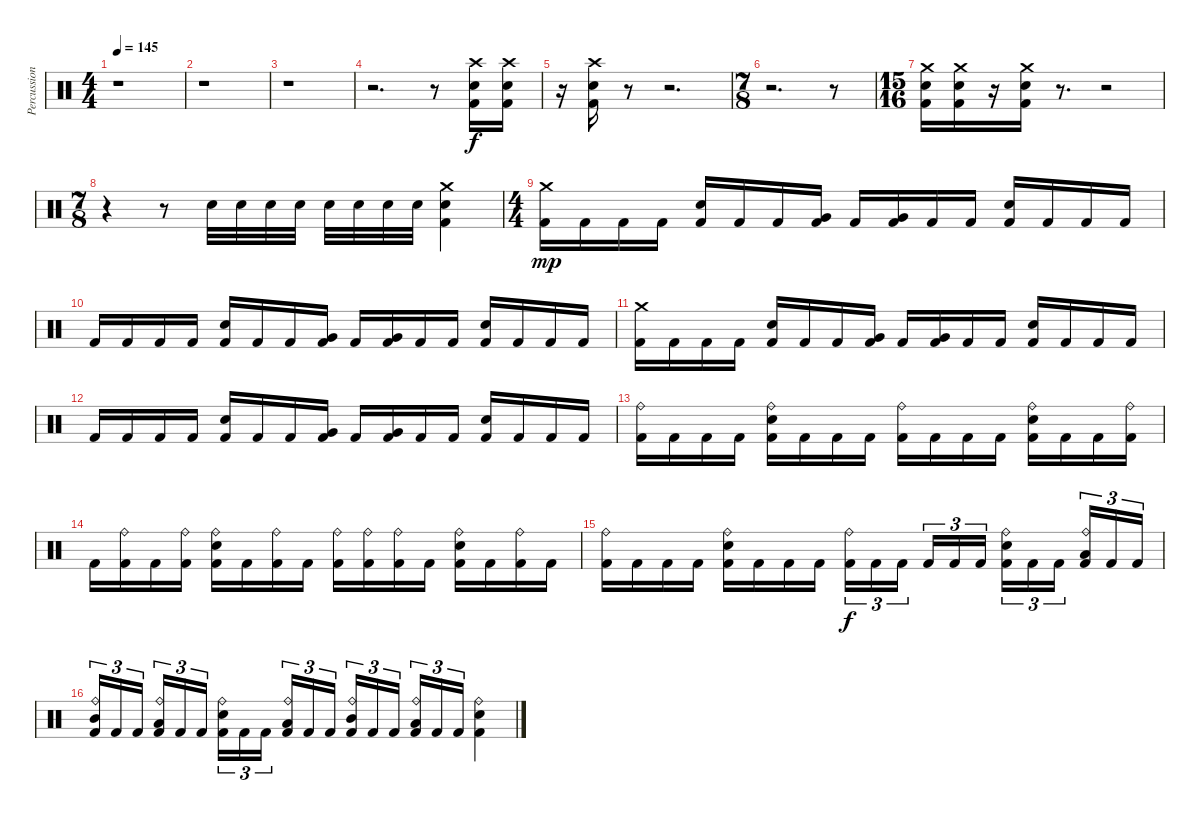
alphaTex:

\track ("Percussion" "Percussion") {instrument percussion}
\staff {score}
\articulation defaults
\ts (4 4)
\tempo 145
\clef neutral
\ks c
r.1{dy f} |
r.1 |
r.1 |
r.2{d} r.8 ("Crash high (hit)" "Electric Snare (hit)" "Kick (hit) 2").16 ("Crash high (hit)" "Electric Snare (hit)" "Kick (hit) 2").16 |
r.16 ("Crash high (hit)" "Electric Snare (hit)" "Kick (hit) 2").16 r.8 r.2{d} |
\ts (7 8)
r.2{d} r.8 |
\ts (15 16)
("Crash medium (hit)" "Electric Snare (hit)" "Kick (hit) 2").16 ("Crash medium (hit)" "Electric Snare (hit)" "Kick (hit) 2").16 r.16 ("Crash medium (hit)" "Electric Snare (hit)" "Kick (hit) 2").16 r.8{d} r.2 |
\ts (7 8)
r.4 r.8 "Electric Snare (hit)".32 "Electric Snare (hit)".32 "Electric Snare (hit)".32 "Electric Snare (hit)".32 "Electric Snare (hit)".32 "Electric Snare (hit)".32 "Electric Snare (hit)".32 "Electric Snare (hit)".32 ("Crash medium (hit)" "Electric Snare (hit)" "Kick (hit) 2").4 |
\ts (4 4)
("Crash medium (hit)" "Kick (hit) 2").16{dy mp} "Kick (hit) 2".16 "Kick (hit) 2".16 "Kick (hit) 2".16 ("Electric Snare (hit)" "Kick (hit) 2").16 "Kick (hit) 2".16 "Kick (hit) 2".16 ("Very Low Tom (hit)" "Kick (hit) 2").16 "Kick (hit) 2".16 ("Very Low Tom (hit)" "Kick (hit) 2").16 "Kick (hit) 2".16 "Kick (hit) 2".16 ("Electric Snare (hit)" "Kick (hit) 2").16 "Kick (hit) 2".16 "Kick (hit) 2".16 "Kick (hit) 2".16 |
"Kick (hit) 2".16 "Kick (hit) 2".16 "Kick (hit) 2".16 "Kick (hit) 2".16 ("Electric Snare (hit)" "Kick (hit) 2").16 "Kick (hit) 2".16 "Kick (hit) 2".16 ("Very Low Tom (hit)" "Kick (hit) 2").16 "Kick (hit) 2".16 ("Very Low Tom (hit)" "Kick (hit) 2").16 "Kick (hit) 2".16 "Kick (hit) 2".16 ("Electric Snare (hit)" "Kick (hit) 2").16 "Kick (hit) 2".16 "Kick (hit) 2".16 "Kick (hit) 2".16 |
("Crash medium (hit)" "Kick (hit) 2").16 "Kick (hit) 2".16 "Kick (hit) 2".16 "Kick (hit) 2".16 ("Electric Snare (hit)" "Kick (hit) 2").16 "Kick (hit) 2".16 "Kick (hit) 2".16 ("Very Low Tom (hit)" "Kick (hit) 2").16 "Kick (hit) 2".16 ("Very Low Tom (hit)" "Kick (hit) 2").16 "Kick (hit) 2".16 "Kick (hit) 2".16 ("Electric Snare (hit)" "Kick (hit) 2").16 "Kick (hit) 2".16 "Kick (hit) 2".16 "Kick (hit) 2".16 |
"Kick (hit) 2".16 "Kick (hit) 2".16 "Kick (hit) 2".16 "Kick (hit) 2".16 ("Electric Snare (hit)" "Kick (hit) 2").16 "Kick (hit) 2".16 "Kick (hit) 2".16 ("Very Low Tom (hit)" "Kick (hit) 2").16 "Kick (hit) 2".16 ("Very Low Tom (hit)" "Kick (hit) 2").16 "Kick (hit) 2".16 "Kick (hit) 2".16 ("Electric Snare (hit)" "Kick (hit) 2").16 "Kick (hit) 2".16 "Kick (hit) 2".16 "Kick (hit) 2".16 |
("Ride (bell)" "Kick (hit) 2").16 "Kick (hit) 2".16 "Kick (hit) 2".16 "Kick (hit) 2".16 ("Ride (bell)" "Electric Snare (hit)" "Kick (hit) 2").16 "Kick (hit) 2".16 "Kick (hit) 2".16 "Kick (hit) 2".16 ("Ride (bell)" "Kick (hit) 2").16 "Kick (hit) 2".16 "Kick (hit) 2".16 "Kick (hit) 2".16 ("Ride (bell)" "Electric Snare (hit)" "Kick (hit) 2").16 "Kick (hit) 2".16 "Kick (hit) 2".16 ("Ride (bell)" "Kick (hit) 2").16 |
"Kick (hit) 2".16 ("Ride (bell)" "Kick (hit) 2").16 "Kick (hit) 2".16 ("Ride (bell)" "Kick (hit) 2").16 ("Ride (bell)" "Electric Snare (hit)" "Kick (hit) 2").16 "Kick (hit) 2".16 ("Ride (bell)" "Kick (hit) 2").16 "Kick (hit) 2".16 ("Ride (bell)" "Kick (hit) 2").16 ("Ride (bell)" "Kick (hit) 2").16 ("Ride (bell)" "Kick (hit) 2").16 "Kick (hit) 2".16 ("Ride (bell)" "Electric Snare (hit)" "Kick (hit) 2").16 "Kick (hit) 2".16 ("Ride (bell)" "Kick (hit) 2").16 "Kick (hit) 2".16 |
("Ride (bell)" "Kick (hit) 2").16 "Kick (hit) 2".16 "Kick (hit) 2".16 "Kick (hit) 2".16 ("Ride (bell)" "Electric Snare (hit)" "Kick (hit) 2").16 "Kick (hit) 2".16 "Kick (hit) 2".16 "Kick (hit) 2".16 ("Ride (bell)" "Kick (hit) 2").16{tu (3 2) dy f} "Kick (hit) 2".16{tu (3 2)} "Kick (hit) 2".16{tu (3 2)} "Kick (hit) 2".16{tu (3 2)} "Kick (hit) 2".16{tu (3 2)} "Kick (hit) 2".16{tu (3 2)} ("Ride (bell)" "Electric Snare (hit)" "Kick (hit) 2").16{tu (3 2)} "Kick (hit) 2".16{tu (3 2)} "Kick (hit) 2".16{tu (3 2)} ("Ride (bell)" "Low Tom (hit)" "Kick (hit) 2").16{tu (3 2)} "Kick (hit) 2".16{tu (3 2)} "Kick (hit) 2".16{tu (3 2)} |
("Ride (bell)" "Mid Tom (hit)" "Kick (hit) 2").16{tu (3 2)} "Kick (hit) 2".16{tu (3 2)} "Kick (hit) 2".16{tu (3 2)} ("Ride (bell)" "Low Tom (hit)" "Kick (hit) 2").16{tu (3 2)} "Kick (hit) 2".16{tu (3 2)} "Kick (hit) 2".16{tu (3 2)} ("Ride (bell)" "Electric Snare (hit)" "Kick (hit) 2").16{tu (3 2)} "Kick (hit) 2".16{tu (3 2)} "Kick (hit) 2".16{tu (3 2)} ("Ride (bell)" "Low Tom (hit)" "Kick (hit) 2").16{tu (3 2)} "Kick (hit) 2".16{tu (3 2)} "Kick (hit) 2".16{tu (3 2)} ("Ride (bell)" "Mid Tom (hit)" "Kick (hit) 2").16{tu (3 2)} "Kick (hit) 2".16{tu (3 2)} "Kick (hit) 2".16{tu (3 2)} ("Ride (bell)" "Low Tom (hit)" "Kick (hit) 2").16{tu (3 2)} "Kick (hit) 2".16{tu (3 2)} "Kick (hit) 2".16{tu (3 2)} ("Ride (bell)" "Electric Snare (hit)" "Kick (hit) 2").4
